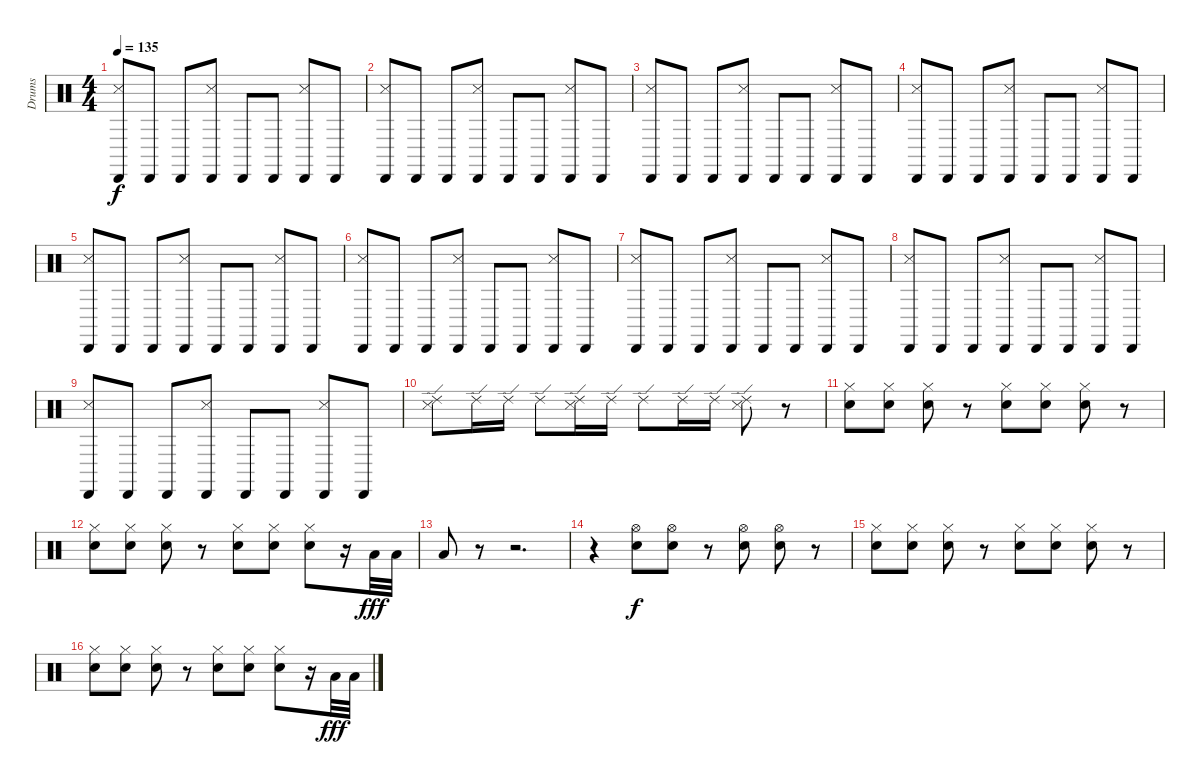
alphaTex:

\track ("Drums" "Drums") {instrument percussion}
\staff {score}
\articulation defaults
\ts (4 4)
\tempo 135
\clef neutral
\ks c
("Cabasa (hit)" "Snare (side stick) 3").8{dy f} "Cabasa (hit)".8 "Cabasa (hit)".8 ("Cabasa (hit)" "Snare (side stick) 3").8 "Cabasa (hit)".8 "Cabasa (hit)".8 ("Cabasa (hit)" "Snare (side stick) 3").8 "Cabasa (hit)".8 |
("Cabasa (hit)" "Snare (side stick) 3").8 "Cabasa (hit)".8 "Cabasa (hit)".8 ("Cabasa (hit)" "Snare (side stick) 3").8 "Cabasa (hit)".8 "Cabasa (hit)".8 ("Cabasa (hit)" "Snare (side stick) 3").8 "Cabasa (hit)".8 |
("Cabasa (hit)" "Snare (side stick) 3").8 "Cabasa (hit)".8 "Cabasa (hit)".8 ("Cabasa (hit)" "Snare (side stick) 3").8 "Cabasa (hit)".8 "Cabasa (hit)".8 ("Cabasa (hit)" "Snare (side stick) 3").8 "Cabasa (hit)".8 |
("Cabasa (hit)" "Snare (side stick) 3").8 "Cabasa (hit)".8 "Cabasa (hit)".8 ("Cabasa (hit)" "Snare (side stick) 3").8 "Cabasa (hit)".8 "Cabasa (hit)".8 ("Cabasa (hit)" "Snare (side stick) 3").8 "Cabasa (hit)".8 |
("Cabasa (hit)" "Snare (side stick) 3").8 "Cabasa (hit)".8 "Cabasa (hit)".8 ("Cabasa (hit)" "Snare (side stick) 3").8 "Cabasa (hit)".8 "Cabasa (hit)".8 ("Cabasa (hit)" "Snare (side stick) 3").8 "Cabasa (hit)".8 |
("Cabasa (hit)" "Snare (side stick) 3").8 "Cabasa (hit)".8 "Cabasa (hit)".8 ("Cabasa (hit)" "Snare (side stick) 3").8 "Cabasa (hit)".8 "Cabasa (hit)".8 ("Cabasa (hit)" "Snare (side stick) 3").8 "Cabasa (hit)".8 |
("Cabasa (hit)" "Snare (side stick) 3").8 "Cabasa (hit)".8 "Cabasa (hit)".8 ("Cabasa (hit)" "Snare (side stick) 3").8 "Cabasa (hit)".8 "Cabasa (hit)".8 ("Cabasa (hit)" "Snare (side stick) 3").8 "Cabasa (hit)".8 |
("Cabasa (hit)" "Snare (side stick) 3").8 "Cabasa (hit)".8 "Cabasa (hit)".8 ("Cabasa (hit)" "Snare (side stick) 3").8 "Cabasa (hit)".8 "Cabasa (hit)".8 ("Cabasa (hit)" "Snare (side stick) 3").8 "Cabasa (hit)".8 |
("Cabasa (hit)" "Snare (side stick) 3").8 "Cabasa (hit)".8 "Cabasa (hit)".8 ("Cabasa (hit)" "Snare (side stick) 3").8 "Cabasa (hit)".8 "Cabasa (hit)".8 ("Cabasa (hit)" "Snare (side stick) 3").8 "Cabasa (hit)".8 |
("Ride (edge) 2" "Snare (side stick) 3").8 "Ride (edge) 2".16 "Ride (edge) 2".16 "Ride (edge) 2".8 ("Ride (edge) 2" "Snare (side stick) 3").16 "Ride (edge) 2".16 "Ride (edge) 2".8 "Ride (edge) 2".16 "Ride (edge) 2".16 ("Ride (edge) 2" "Snare (side stick) 3").8 r.8 |
("Hi-Hat (closed)" "Electric Snare (hit)").8 ("Hi-Hat (closed)" "Electric Snare (hit)").8 ("Hi-Hat (closed)" "Electric Snare (hit)").8 r.8 ("Hi-Hat (closed)" "Electric Snare (hit)").8 ("Hi-Hat (closed)" "Electric Snare (hit)").8 ("Hi-Hat (closed)" "Electric Snare (hit)").8 r.8 |
("Hi-Hat (closed)" "Electric Snare (hit)").8 ("Hi-Hat (closed)" "Electric Snare (hit)").8 ("Hi-Hat (closed)" "Electric Snare (hit)").8 r.8 ("Hi-Hat (closed)" "Electric Snare (hit)").8 ("Hi-Hat (closed)" "Electric Snare (hit)").8 ("Hi-Hat (closed)" "Electric Snare (hit)").8 r.16 "Low Floor Tom (hit)".32{dy fff} "Low Floor Tom (hit)".32 |
"Low Floor Tom (hit)".8 r.8 r.2{d} |
r.4 ("Hi-Hat (open)" "Electric Snare (hit)").8{dy f} ("Hi-Hat (open)" "Electric Snare (hit)").8 r.8 ("Hi-Hat (open)" "Electric Snare (hit)").8 ("Hi-Hat (open)" "Electric Snare (hit)").8 r.8 |
("Hi-Hat (closed)" "Electric Snare (hit)").8 ("Hi-Hat (closed)" "Electric Snare (hit)").8 ("Hi-Hat (closed)" "Electric Snare (hit)").8 r.8 ("Hi-Hat (closed)" "Electric Snare (hit)").8 ("Hi-Hat (closed)" "Electric Snare (hit)").8 ("Hi-Hat (closed)" "Electric Snare (hit)").8 r.8 |
("Hi-Hat (closed)" "Electric Snare (hit)").8 ("Hi-Hat (closed)" "Electric Snare (hit)").8 ("Hi-Hat (closed)" "Electric Snare (hit)").8 r.8 ("Hi-Hat (closed)" "Electric Snare (hit)").8 ("Hi-Hat (closed)" "Electric Snare (hit)").8 ("Hi-Hat (closed)" "Electric Snare (hit)").8 r.16 "Low Floor Tom (hit)".32{dy fff} "Low Floor Tom (hit)".32
